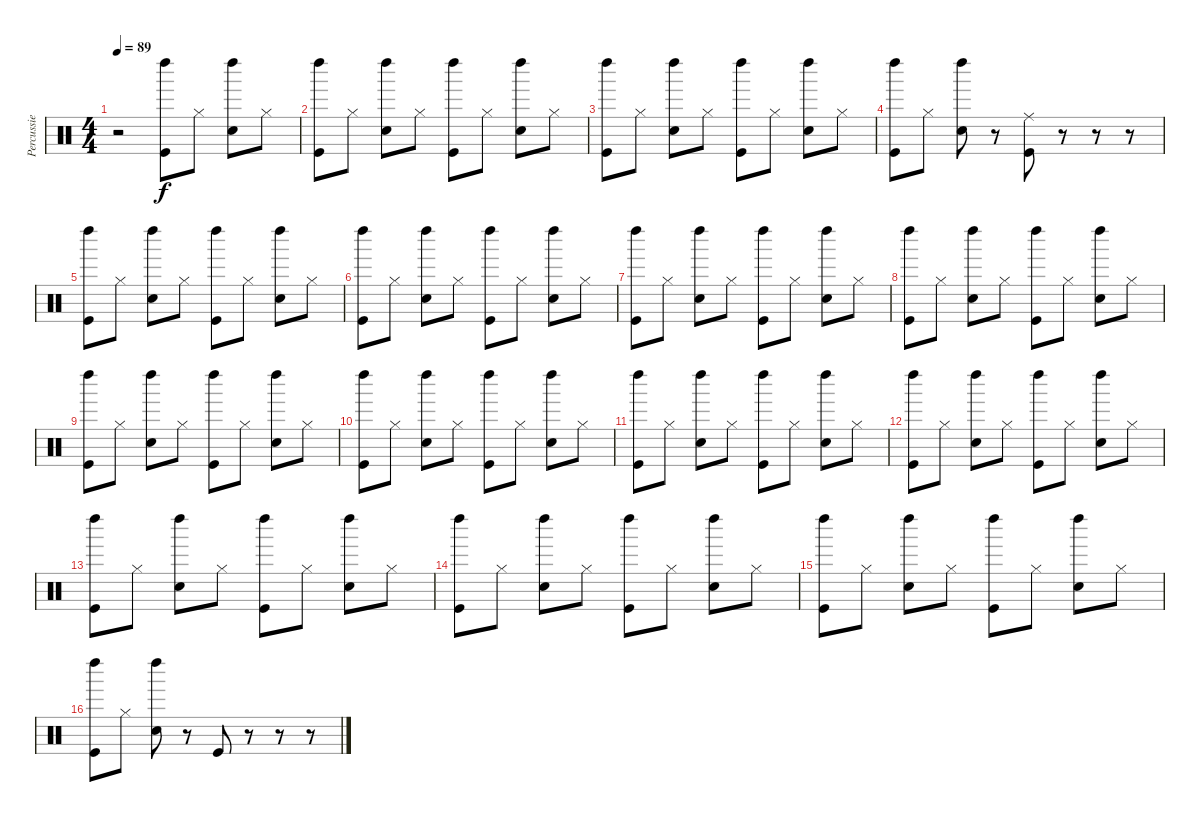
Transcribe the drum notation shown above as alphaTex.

\track ("Percussie" "Percussie") {instrument percussion}
\staff {score}
\articulation defaults
\ts (4 4)
\tempo 89
\clef neutral
\ks c
r.2{dy f} ("Left Maraca (hit)" "Kick (hit)").8 "Hi-Hat (closed)".8 ("Left Maraca (hit)" "Electric Snare (hit)").8 "Hi-Hat (closed)".8 |
("Left Maraca (hit)" "Kick (hit)").8 "Hi-Hat (closed)".8 ("Left Maraca (hit)" "Electric Snare (hit)").8 "Hi-Hat (closed)".8 ("Left Maraca (hit)" "Kick (hit)").8 "Hi-Hat (closed)".8 ("Left Maraca (hit)" "Electric Snare (hit)").8 "Hi-Hat (closed)".8 |
("Left Maraca (hit)" "Kick (hit)").8 "Hi-Hat (closed)".8 ("Left Maraca (hit)" "Electric Snare (hit)").8 "Hi-Hat (closed)".8 ("Left Maraca (hit)" "Kick (hit)").8 "Hi-Hat (closed)".8 ("Left Maraca (hit)" "Electric Snare (hit)").8 "Hi-Hat (closed)".8 |
("Left Maraca (hit)" "Kick (hit)").8 "Hi-Hat (closed)".8 ("Left Maraca (hit)" "Electric Snare (hit)").8 r.8 ("Ride (middle)" "Kick (hit)").8 r.8 r.8 r.8 |
("Left Maraca (hit)" "Kick (hit)").8 "Hi-Hat (closed)".8 ("Left Maraca (hit)" "Electric Snare (hit)").8 "Hi-Hat (closed)".8 ("Left Maraca (hit)" "Kick (hit)").8 "Hi-Hat (closed)".8 ("Left Maraca (hit)" "Electric Snare (hit)").8 "Hi-Hat (closed)".8 |
("Left Maraca (hit)" "Kick (hit)").8 "Hi-Hat (closed)".8 ("Left Maraca (hit)" "Electric Snare (hit)").8 "Hi-Hat (closed)".8 ("Left Maraca (hit)" "Kick (hit)").8 "Hi-Hat (closed)".8 ("Left Maraca (hit)" "Electric Snare (hit)").8 "Hi-Hat (closed)".8 |
("Left Maraca (hit)" "Kick (hit)").8 "Hi-Hat (closed)".8 ("Left Maraca (hit)" "Electric Snare (hit)").8 "Hi-Hat (closed)".8 ("Left Maraca (hit)" "Kick (hit)").8 "Hi-Hat (closed)".8 ("Left Maraca (hit)" "Electric Snare (hit)").8 "Hi-Hat (closed)".8 |
("Left Maraca (hit)" "Kick (hit)").8 "Hi-Hat (closed)".8 ("Left Maraca (hit)" "Electric Snare (hit)").8 "Hi-Hat (closed)".8 ("Left Maraca (hit)" "Kick (hit)").8 "Hi-Hat (closed)".8 ("Left Maraca (hit)" "Electric Snare (hit)").8 "Hi-Hat (closed)".8 |
("Left Maraca (hit)" "Kick (hit)").8 "Hi-Hat (closed)".8 ("Left Maraca (hit)" "Electric Snare (hit)").8 "Hi-Hat (closed)".8 ("Left Maraca (hit)" "Kick (hit)").8 "Hi-Hat (closed)".8 ("Left Maraca (hit)" "Electric Snare (hit)").8 "Hi-Hat (closed)".8 |
("Left Maraca (hit)" "Kick (hit)").8 "Hi-Hat (closed)".8 ("Left Maraca (hit)" "Electric Snare (hit)").8 "Hi-Hat (closed)".8 ("Left Maraca (hit)" "Kick (hit)").8 "Hi-Hat (closed)".8 ("Left Maraca (hit)" "Electric Snare (hit)").8 "Hi-Hat (closed)".8 |
("Left Maraca (hit)" "Kick (hit)").8 "Hi-Hat (closed)".8 ("Left Maraca (hit)" "Electric Snare (hit)").8 "Hi-Hat (closed)".8 ("Left Maraca (hit)" "Kick (hit)").8 "Hi-Hat (closed)".8 ("Left Maraca (hit)" "Electric Snare (hit)").8 "Hi-Hat (closed)".8 |
("Left Maraca (hit)" "Kick (hit)").8 "Hi-Hat (closed)".8 ("Left Maraca (hit)" "Electric Snare (hit)").8 "Hi-Hat (closed)".8 ("Left Maraca (hit)" "Kick (hit)").8 "Hi-Hat (closed)".8 ("Left Maraca (hit)" "Electric Snare (hit)").8 "Hi-Hat (closed)".8 |
("Left Maraca (hit)" "Kick (hit)").8 "Hi-Hat (closed)".8 ("Left Maraca (hit)" "Electric Snare (hit)").8 "Hi-Hat (closed)".8 ("Left Maraca (hit)" "Kick (hit)").8 "Hi-Hat (closed)".8 ("Left Maraca (hit)" "Electric Snare (hit)").8 "Hi-Hat (closed)".8 |
("Left Maraca (hit)" "Kick (hit)").8 "Hi-Hat (closed)".8 ("Left Maraca (hit)" "Electric Snare (hit)").8 "Hi-Hat (closed)".8 ("Left Maraca (hit)" "Kick (hit)").8 "Hi-Hat (closed)".8 ("Left Maraca (hit)" "Electric Snare (hit)").8 "Hi-Hat (closed)".8 |
("Left Maraca (hit)" "Kick (hit)").8 "Hi-Hat (closed)".8 ("Left Maraca (hit)" "Electric Snare (hit)").8 "Hi-Hat (closed)".8 ("Left Maraca (hit)" "Kick (hit)").8 "Hi-Hat (closed)".8 ("Left Maraca (hit)" "Electric Snare (hit)").8 "Hi-Hat (closed)".8 |
("Left Maraca (hit)" "Kick (hit)").8 "Hi-Hat (closed)".8 ("Left Maraca (hit)" "Electric Snare (hit)").8 r.8 "Kick (hit)".8 r.8 r.8 r.8
